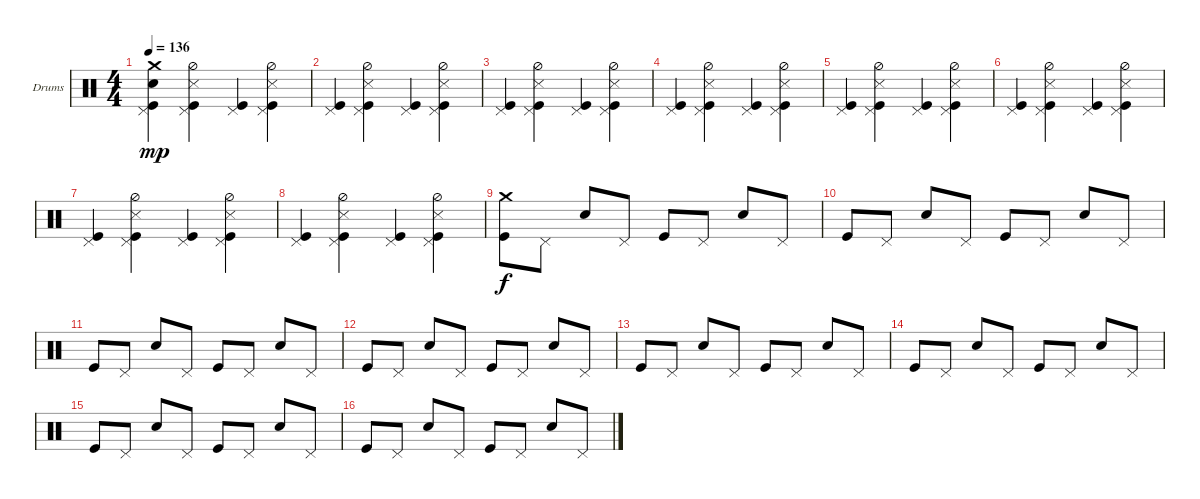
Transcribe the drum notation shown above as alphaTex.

\defaultSystemsLayout 4
\bracketExtendMode groupsimilarinstruments
\firstSystemTrackNameOrientation horizontal
\otherSystemsTrackNameOrientation horizontal
\track ("Е. Кулаков" "Drums") {instrument percussion}
\staff {score}
\articulation defaults
\ts (4 4)
\tempo 136
\clef neutral
\ks c
("Kick (hit)" "Snare (hit) 2" "Pedal Hi-Hat (hit)" "Crash medium (hit)").4{dy mp} ("Kick (hit)" "Pedal Hi-Hat (hit)" "Snare (side stick) 3" "Hi-Hat (half)").4 ("Kick (hit)" "Pedal Hi-Hat (hit)").4 ("Kick (hit)" "Pedal Hi-Hat (hit)" "Snare (side stick) 3" "Hi-Hat (half)").4 |
("Kick (hit)" "Pedal Hi-Hat (hit)").4 ("Kick (hit)" "Pedal Hi-Hat (hit)" "Snare (side stick) 3" "Hi-Hat (half)").4 ("Kick (hit)" "Pedal Hi-Hat (hit)").4 ("Kick (hit)" "Pedal Hi-Hat (hit)" "Snare (side stick) 3" "Hi-Hat (half)").4 |
("Kick (hit)" "Pedal Hi-Hat (hit)").4 ("Kick (hit)" "Pedal Hi-Hat (hit)" "Snare (side stick) 3" "Hi-Hat (half)").4 ("Kick (hit)" "Pedal Hi-Hat (hit)").4 ("Kick (hit)" "Pedal Hi-Hat (hit)" "Snare (side stick) 3" "Hi-Hat (half)").4 |
("Kick (hit)" "Pedal Hi-Hat (hit)").4 ("Kick (hit)" "Pedal Hi-Hat (hit)" "Snare (side stick) 3" "Hi-Hat (half)").4 ("Kick (hit)" "Pedal Hi-Hat (hit)").4 ("Kick (hit)" "Pedal Hi-Hat (hit)" "Snare (side stick) 3" "Hi-Hat (half)").4 |
("Kick (hit)" "Pedal Hi-Hat (hit)").4 ("Kick (hit)" "Pedal Hi-Hat (hit)" "Snare (side stick) 3" "Hi-Hat (half)").4 ("Kick (hit)" "Pedal Hi-Hat (hit)").4 ("Kick (hit)" "Pedal Hi-Hat (hit)" "Snare (side stick) 3" "Hi-Hat (half)").4 |
("Kick (hit)" "Pedal Hi-Hat (hit)").4 ("Kick (hit)" "Pedal Hi-Hat (hit)" "Snare (side stick) 3" "Hi-Hat (half)").4 ("Kick (hit)" "Pedal Hi-Hat (hit)").4 ("Kick (hit)" "Pedal Hi-Hat (hit)" "Snare (side stick) 3" "Hi-Hat (half)").4 |
("Kick (hit)" "Pedal Hi-Hat (hit)").4 ("Kick (hit)" "Pedal Hi-Hat (hit)" "Snare (side stick) 3" "Hi-Hat (half)").4 ("Kick (hit)" "Pedal Hi-Hat (hit)").4 ("Kick (hit)" "Pedal Hi-Hat (hit)" "Snare (side stick) 3" "Hi-Hat (half)").4 |
("Kick (hit)" "Pedal Hi-Hat (hit)").4 ("Kick (hit)" "Pedal Hi-Hat (hit)" "Snare (side stick) 3" "Hi-Hat (half)").4 ("Kick (hit)" "Pedal Hi-Hat (hit)").4 ("Kick (hit)" "Pedal Hi-Hat (hit)" "Snare (side stick) 3" "Hi-Hat (half)").4 |
("Kick (hit)" "Crash medium (hit)").8{dy f} "Pedal Hi-Hat (hit)".8 "Snare (hit) 2".8 "Pedal Hi-Hat (hit)".8 "Kick (hit)".8 "Pedal Hi-Hat (hit)".8 "Snare (hit) 2".8 "Pedal Hi-Hat (hit)".8 |
"Kick (hit)".8 "Pedal Hi-Hat (hit)".8 "Snare (hit) 2".8 "Pedal Hi-Hat (hit)".8 "Kick (hit)".8 "Pedal Hi-Hat (hit)".8 "Snare (hit) 2".8 "Pedal Hi-Hat (hit)".8 |
"Kick (hit)".8 "Pedal Hi-Hat (hit)".8 "Snare (hit) 2".8 "Pedal Hi-Hat (hit)".8 "Kick (hit)".8 "Pedal Hi-Hat (hit)".8 "Snare (hit) 2".8 "Pedal Hi-Hat (hit)".8 |
"Kick (hit)".8 "Pedal Hi-Hat (hit)".8 "Snare (hit) 2".8 "Pedal Hi-Hat (hit)".8 "Kick (hit)".8 "Pedal Hi-Hat (hit)".8 "Snare (hit) 2".8 "Pedal Hi-Hat (hit)".8 |
"Kick (hit)".8 "Pedal Hi-Hat (hit)".8 "Snare (hit) 2".8 "Pedal Hi-Hat (hit)".8 "Kick (hit)".8 "Pedal Hi-Hat (hit)".8 "Snare (hit) 2".8 "Pedal Hi-Hat (hit)".8 |
"Kick (hit)".8 "Pedal Hi-Hat (hit)".8 "Snare (hit) 2".8 "Pedal Hi-Hat (hit)".8 "Kick (hit)".8 "Pedal Hi-Hat (hit)".8 "Snare (hit) 2".8 "Pedal Hi-Hat (hit)".8 |
"Kick (hit)".8 "Pedal Hi-Hat (hit)".8 "Snare (hit) 2".8 "Pedal Hi-Hat (hit)".8 "Kick (hit)".8 "Pedal Hi-Hat (hit)".8 "Snare (hit) 2".8 "Pedal Hi-Hat (hit)".8 |
"Kick (hit)".8 "Pedal Hi-Hat (hit)".8 "Snare (hit) 2".8 "Pedal Hi-Hat (hit)".8 "Kick (hit)".8 "Pedal Hi-Hat (hit)".8 "Snare (hit) 2".8 "Pedal Hi-Hat (hit)".8
